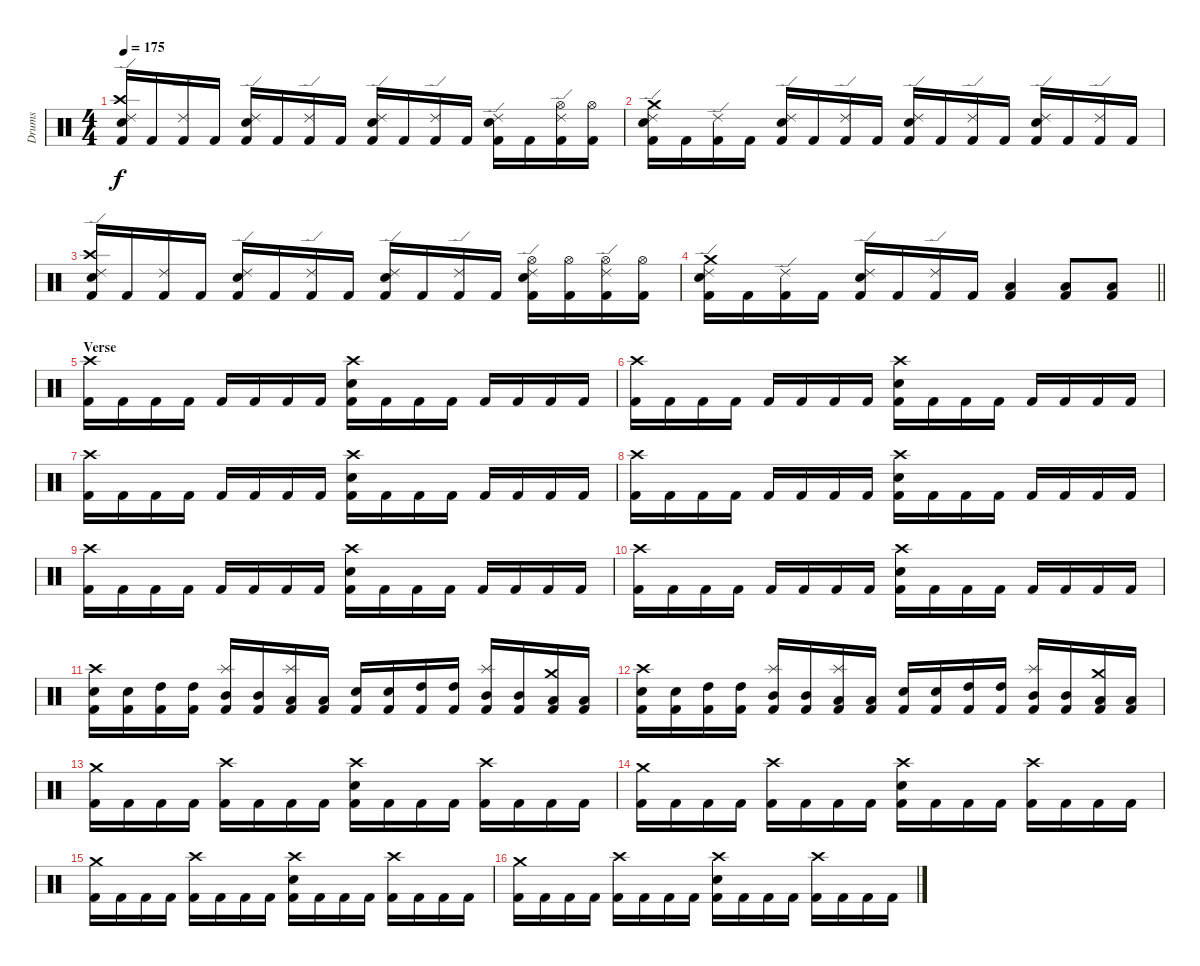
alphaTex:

\track ("Drums" "Drums") {instrument percussion}
\staff {score}
\articulation defaults
\ts (4 4)
\tempo 175
\clef neutral
\ks c
("Ride (edge) 2" "Crash high (hit)" "Snare (hit) 2" "Kick (hit) 2").16{dy f} "Kick (hit) 2".16 ("Ride (edge) 2" "Kick (hit) 2").16 "Kick (hit) 2".16 ("Ride (edge) 2" "Snare (hit) 2" "Kick (hit) 2").16 "Kick (hit) 2".16 ("Ride (edge) 2" "Kick (hit) 2").16 "Kick (hit) 2".16 ("Ride (edge) 2" "Snare (hit) 2" "Kick (hit) 2").16 "Kick (hit) 2".16 ("Ride (edge) 2" "Kick (hit) 2").16 "Kick (hit) 2".16 ("Ride (edge) 2" "Snare (hit) 2" "Kick (hit) 2").16 "Kick (hit) 2".16 ("Ride (edge) 2" "Hi-Hat (open)" "Kick (hit) 2").16 ("Hi-Hat (open)" "Kick (hit) 2").16 |
("Ride (edge) 2" "Crash medium (hit)" "Snare (hit) 2" "Kick (hit) 2").16 "Kick (hit) 2".16 ("Ride (edge) 2" "Kick (hit) 2").16 "Kick (hit) 2".16 ("Ride (edge) 2" "Snare (hit) 2" "Kick (hit) 2").16 "Kick (hit) 2".16 ("Ride (edge) 2" "Kick (hit) 2").16 "Kick (hit) 2".16 ("Ride (edge) 2" "Snare (hit) 2" "Kick (hit) 2").16 "Kick (hit) 2".16 ("Ride (edge) 2" "Kick (hit) 2").16 "Kick (hit) 2".16 ("Ride (edge) 2" "Snare (hit) 2" "Kick (hit) 2").16 "Kick (hit) 2".16 ("Ride (edge) 2" "Kick (hit) 2").16 "Kick (hit) 2".16 |
("Ride (edge) 2" "Crash high (hit)" "Snare (hit) 2" "Kick (hit) 2").16 "Kick (hit) 2".16 ("Ride (edge) 2" "Kick (hit) 2").16 "Kick (hit) 2".16 ("Ride (edge) 2" "Snare (hit) 2" "Kick (hit) 2").16 "Kick (hit) 2".16 ("Ride (edge) 2" "Kick (hit) 2").16 "Kick (hit) 2".16 ("Ride (edge) 2" "Snare (hit) 2" "Kick (hit) 2").16 "Kick (hit) 2".16 ("Ride (edge) 2" "Kick (hit) 2").16 "Kick (hit) 2".16 ("Ride (edge) 2" "Hi-Hat (open)" "Snare (hit) 2" "Kick (hit) 2").16 ("Hi-Hat (open)" "Kick (hit) 2").16 ("Ride (edge) 2" "Hi-Hat (open)" "Kick (hit) 2").16 ("Hi-Hat (open)" "Kick (hit) 2").16 |
\barLineRight lightlight
("Ride (edge) 2" "Crash medium (hit)" "Snare (hit) 2" "Kick (hit) 2").16 "Kick (hit) 2".16 ("Ride (edge) 2" "Kick (hit) 2").16 "Kick (hit) 2".16 ("Ride (edge) 2" "Snare (hit) 2" "Kick (hit) 2").16 "Kick (hit) 2".16 ("Ride (edge) 2" "Kick (hit) 2").16 "Kick (hit) 2".16 ("Low Floor Tom (hit)" "Kick (hit) 2").4 ("Low Floor Tom (hit)" "Kick (hit) 2").8 ("Low Floor Tom (hit)" "Kick (hit) 2").8 |
\section ("" "Verse")
("Crash high (hit)" "Kick (hit) 2").16 "Kick (hit) 2".16 "Kick (hit) 2".16 "Kick (hit) 2".16 "Kick (hit) 2".16 "Kick (hit) 2".16 "Kick (hit) 2".16 "Kick (hit) 2".16 ("Crash high (hit)" "Snare (hit) 2" "Kick (hit) 2").16 "Kick (hit) 2".16 "Kick (hit) 2".16 "Kick (hit) 2".16 "Kick (hit) 2".16 "Kick (hit) 2".16 "Kick (hit) 2".16 "Kick (hit) 2".16 |
("Crash high (hit)" "Kick (hit) 2").16 "Kick (hit) 2".16 "Kick (hit) 2".16 "Kick (hit) 2".16 "Kick (hit) 2".16 "Kick (hit) 2".16 "Kick (hit) 2".16 "Kick (hit) 2".16 ("Crash high (hit)" "Snare (hit) 2" "Kick (hit) 2").16 "Kick (hit) 2".16 "Kick (hit) 2".16 "Kick (hit) 2".16 "Kick (hit) 2".16 "Kick (hit) 2".16 "Kick (hit) 2".16 "Kick (hit) 2".16 |
("Crash high (hit)" "Kick (hit) 2").16 "Kick (hit) 2".16 "Kick (hit) 2".16 "Kick (hit) 2".16 "Kick (hit) 2".16 "Kick (hit) 2".16 "Kick (hit) 2".16 "Kick (hit) 2".16 ("Crash high (hit)" "Snare (hit) 2" "Kick (hit) 2").16 "Kick (hit) 2".16 "Kick (hit) 2".16 "Kick (hit) 2".16 "Kick (hit) 2".16 "Kick (hit) 2".16 "Kick (hit) 2".16 "Kick (hit) 2".16 |
("Crash high (hit)" "Kick (hit) 2").16 "Kick (hit) 2".16 "Kick (hit) 2".16 "Kick (hit) 2".16 "Kick (hit) 2".16 "Kick (hit) 2".16 "Kick (hit) 2".16 "Kick (hit) 2".16 ("Crash high (hit)" "Snare (hit) 2" "Kick (hit) 2").16 "Kick (hit) 2".16 "Kick (hit) 2".16 "Kick (hit) 2".16 "Kick (hit) 2".16 "Kick (hit) 2".16 "Kick (hit) 2".16 "Kick (hit) 2".16 |
("Crash high (hit)" "Kick (hit) 2").16 "Kick (hit) 2".16 "Kick (hit) 2".16 "Kick (hit) 2".16 "Kick (hit) 2".16 "Kick (hit) 2".16 "Kick (hit) 2".16 "Kick (hit) 2".16 ("Crash high (hit)" "Snare (hit) 2" "Kick (hit) 2").16 "Kick (hit) 2".16 "Kick (hit) 2".16 "Kick (hit) 2".16 "Kick (hit) 2".16 "Kick (hit) 2".16 "Kick (hit) 2".16 "Kick (hit) 2".16 |
("Crash high (hit)" "Kick (hit) 2").16 "Kick (hit) 2".16 "Kick (hit) 2".16 "Kick (hit) 2".16 "Kick (hit) 2".16 "Kick (hit) 2".16 "Kick (hit) 2".16 "Kick (hit) 2".16 ("Crash high (hit)" "Snare (hit) 2" "Kick (hit) 2").16 "Kick (hit) 2".16 "Kick (hit) 2".16 "Kick (hit) 2".16 "Kick (hit) 2".16 "Kick (hit) 2".16 "Kick (hit) 2".16 "Kick (hit) 2".16 |
("Crash high (hit)" "Snare (hit) 2" "Kick (hit) 2").16 ("Snare (hit) 2" "Kick (hit) 2").16 ("High Tom (hit)" "Kick (hit) 2").16 ("High Tom (hit)" "Kick (hit) 2").16 ("Splash (hit)" "Mid Tom (hit)" "Kick (hit) 2").16 ("Mid Tom (hit)" "Kick (hit) 2").16 ("Splash (hit)" "Low Tom (hit)" "Kick (hit) 2").16 ("Low Tom (hit)" "Kick (hit) 2").16 ("Snare (hit) 2" "Kick (hit) 2").16 ("Snare (hit) 2" "Kick (hit) 2").16 ("High Tom (hit)" "Kick (hit) 2").16 ("High Tom (hit)" "Kick (hit) 2").16 ("Splash (hit)" "Mid Tom (hit)" "Kick (hit) 2").16 ("Mid Tom (hit)" "Kick (hit) 2").16 ("Crash medium (hit)" "Low Tom (hit)" "Kick (hit) 2").16 ("Low Tom (hit)" "Kick (hit) 2").16 |
("Crash high (hit)" "Snare (hit) 2" "Kick (hit) 2").16 ("Snare (hit) 2" "Kick (hit) 2").16 ("High Tom (hit)" "Kick (hit) 2").16 ("High Tom (hit)" "Kick (hit) 2").16 ("Splash (hit)" "Mid Tom (hit)" "Kick (hit) 2").16 ("Mid Tom (hit)" "Kick (hit) 2").16 ("Splash (hit)" "Low Tom (hit)" "Kick (hit) 2").16 ("Low Tom (hit)" "Kick (hit) 2").16 ("Snare (hit) 2" "Kick (hit) 2").16 ("Snare (hit) 2" "Kick (hit) 2").16 ("High Tom (hit)" "Kick (hit) 2").16 ("High Tom (hit)" "Kick (hit) 2").16 ("Splash (hit)" "Mid Tom (hit)" "Kick (hit) 2").16 ("Mid Tom (hit)" "Kick (hit) 2").16 ("Crash medium (hit)" "Low Tom (hit)" "Kick (hit) 2").16 ("Low Tom (hit)" "Kick (hit) 2").16 |
("Crash medium (hit)" "Kick (hit) 2").16 "Kick (hit) 2".16 "Kick (hit) 2".16 "Kick (hit) 2".16 ("Crash high (hit)" "Kick (hit) 2").16 "Kick (hit) 2".16 "Kick (hit) 2".16 "Kick (hit) 2".16 ("Crash high (hit)" "Snare (hit) 2" "Kick (hit) 2").16 "Kick (hit) 2".16 "Kick (hit) 2".16 "Kick (hit) 2".16 ("Crash high (hit)" "Kick (hit) 2").16 "Kick (hit) 2".16 "Kick (hit) 2".16 "Kick (hit) 2".16 |
("Crash medium (hit)" "Kick (hit) 2").16 "Kick (hit) 2".16 "Kick (hit) 2".16 "Kick (hit) 2".16 ("Crash high (hit)" "Kick (hit) 2").16 "Kick (hit) 2".16 "Kick (hit) 2".16 "Kick (hit) 2".16 ("Crash high (hit)" "Snare (hit) 2" "Kick (hit) 2").16 "Kick (hit) 2".16 "Kick (hit) 2".16 "Kick (hit) 2".16 ("Crash high (hit)" "Kick (hit) 2").16 "Kick (hit) 2".16 "Kick (hit) 2".16 "Kick (hit) 2".16 |
("Crash medium (hit)" "Kick (hit) 2").16 "Kick (hit) 2".16 "Kick (hit) 2".16 "Kick (hit) 2".16 ("Crash high (hit)" "Kick (hit) 2").16 "Kick (hit) 2".16 "Kick (hit) 2".16 "Kick (hit) 2".16 ("Crash high (hit)" "Snare (hit) 2" "Kick (hit) 2").16 "Kick (hit) 2".16 "Kick (hit) 2".16 "Kick (hit) 2".16 ("Crash high (hit)" "Kick (hit) 2").16 "Kick (hit) 2".16 "Kick (hit) 2".16 "Kick (hit) 2".16 |
("Crash medium (hit)" "Kick (hit) 2").16 "Kick (hit) 2".16 "Kick (hit) 2".16 "Kick (hit) 2".16 ("Crash high (hit)" "Kick (hit) 2").16 "Kick (hit) 2".16 "Kick (hit) 2".16 "Kick (hit) 2".16 ("Crash high (hit)" "Snare (hit) 2" "Kick (hit) 2").16 "Kick (hit) 2".16 "Kick (hit) 2".16 "Kick (hit) 2".16 ("Crash high (hit)" "Kick (hit) 2").16 "Kick (hit) 2".16 "Kick (hit) 2".16 "Kick (hit) 2".16
